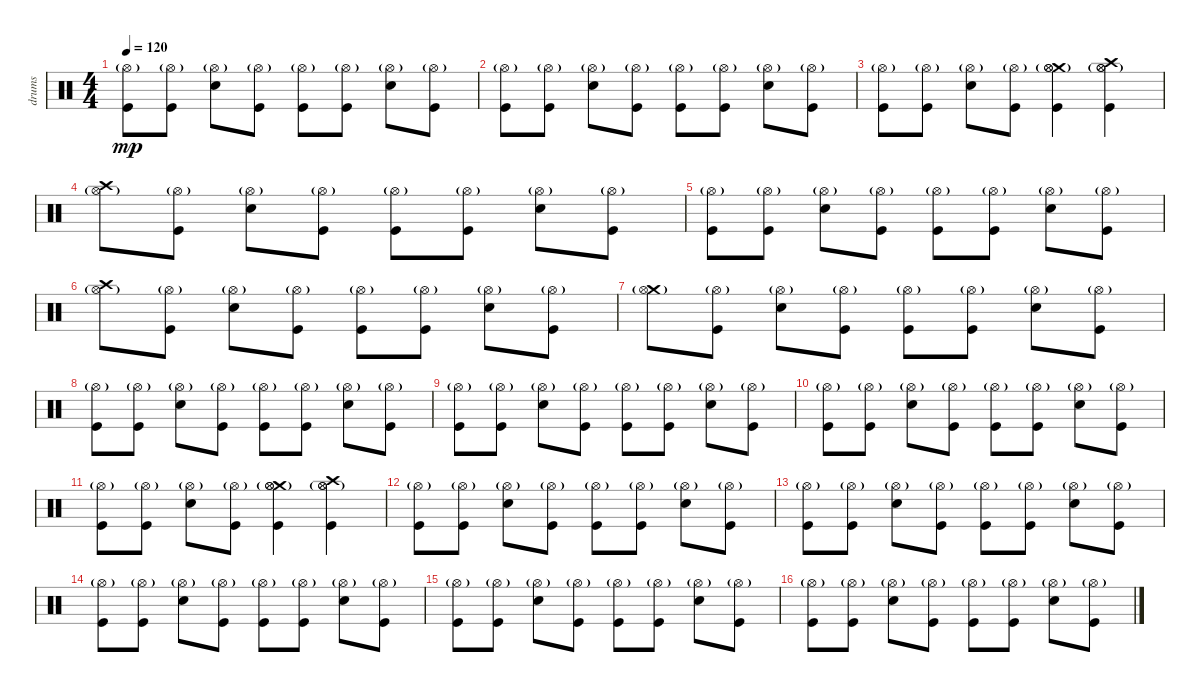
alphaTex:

\track ("drums" "drums") {instrument percussion}
\staff {score}
\articulation defaults
\ts (4 4)
\tempo 120
\clef neutral
\ks c
("Kick (hit)" "Hi-Hat (open)"{g}).8{dy mp} ("Kick (hit)" "Hi-Hat (open)"{g}).8 ("Electric Snare (hit)" "Hi-Hat (open)"{g}).8 ("Kick (hit)" "Hi-Hat (open)"{g}).8 ("Kick (hit)" "Hi-Hat (open)"{g}).8 ("Kick (hit)" "Hi-Hat (open)"{g}).8 ("Electric Snare (hit)" "Hi-Hat (open)"{g}).8 ("Kick (hit)" "Hi-Hat (open)"{g}).8 |
("Kick (hit)" "Hi-Hat (open)"{g}).8 ("Kick (hit)" "Hi-Hat (open)"{g}).8 ("Electric Snare (hit)" "Hi-Hat (open)"{g}).8 ("Kick (hit)" "Hi-Hat (open)"{g}).8 ("Kick (hit)" "Hi-Hat (open)"{g}).8 ("Kick (hit)" "Hi-Hat (open)"{g}).8 ("Electric Snare (hit)" "Hi-Hat (open)"{g}).8 ("Kick (hit)" "Hi-Hat (open)"{g}).8 |
("Kick (hit)" "Hi-Hat (open)"{g}).8 ("Kick (hit)" "Hi-Hat (open)"{g}).8 ("Electric Snare (hit)" "Hi-Hat (open)"{g}).8 ("Kick (hit)" "Hi-Hat (open)"{g}).8 ("Crash medium (hit)" "Hi-Hat (open)" "Kick (hit)" "Hi-Hat (open)"{g}).4 ("Crash high (hit)" "Hi-Hat (open)" "Kick (hit)" "Hi-Hat (open)"{g}).4 |
("Crash high (hit)" "Hi-Hat (open)"{g}).8 ("Kick (hit)" "Hi-Hat (open)"{g}).8 ("Electric Snare (hit)" "Hi-Hat (open)"{g}).8 ("Kick (hit)" "Hi-Hat (open)"{g}).8 ("Kick (hit)" "Hi-Hat (open)"{g}).8 ("Kick (hit)" "Hi-Hat (open)"{g}).8 ("Electric Snare (hit)" "Hi-Hat (open)"{g}).8 ("Kick (hit)" "Hi-Hat (open)"{g}).8 |
("Kick (hit)" "Hi-Hat (open)"{g}).8 ("Kick (hit)" "Hi-Hat (open)"{g}).8 ("Electric Snare (hit)" "Hi-Hat (open)"{g}).8 ("Kick (hit)" "Hi-Hat (open)"{g}).8 ("Kick (hit)" "Hi-Hat (open)"{g}).8 ("Kick (hit)" "Hi-Hat (open)"{g}).8 ("Electric Snare (hit)" "Hi-Hat (open)"{g}).8 ("Kick (hit)" "Hi-Hat (open)"{g}).8 |
("Crash high (hit)" "Hi-Hat (open)"{g}).8 ("Kick (hit)" "Hi-Hat (open)"{g}).8 ("Electric Snare (hit)" "Hi-Hat (open)"{g}).8 ("Kick (hit)" "Hi-Hat (open)"{g}).8 ("Kick (hit)" "Hi-Hat (open)"{g}).8 ("Kick (hit)" "Hi-Hat (open)"{g}).8 ("Electric Snare (hit)" "Hi-Hat (open)"{g}).8 ("Kick (hit)" "Hi-Hat (open)"{g}).8 |
("Crash medium (hit)" "Hi-Hat (open)"{g}).8 ("Kick (hit)" "Hi-Hat (open)"{g}).8 ("Electric Snare (hit)" "Hi-Hat (open)"{g}).8 ("Kick (hit)" "Hi-Hat (open)"{g}).8 ("Kick (hit)" "Hi-Hat (open)"{g}).8 ("Kick (hit)" "Hi-Hat (open)"{g}).8 ("Electric Snare (hit)" "Hi-Hat (open)"{g}).8 ("Kick (hit)" "Hi-Hat (open)"{g}).8 |
("Kick (hit)" "Hi-Hat (open)"{g}).8 ("Kick (hit)" "Hi-Hat (open)"{g}).8 ("Electric Snare (hit)" "Hi-Hat (open)"{g}).8 ("Kick (hit)" "Hi-Hat (open)"{g}).8 ("Kick (hit)" "Hi-Hat (open)"{g}).8 ("Kick (hit)" "Hi-Hat (open)"{g}).8 ("Electric Snare (hit)" "Hi-Hat (open)"{g}).8 ("Kick (hit)" "Hi-Hat (open)"{g}).8 |
("Kick (hit)" "Hi-Hat (open)"{g}).8 ("Kick (hit)" "Hi-Hat (open)"{g}).8 ("Electric Snare (hit)" "Hi-Hat (open)"{g}).8 ("Kick (hit)" "Hi-Hat (open)"{g}).8 ("Kick (hit)" "Hi-Hat (open)"{g}).8 ("Kick (hit)" "Hi-Hat (open)"{g}).8 ("Electric Snare (hit)" "Hi-Hat (open)"{g}).8 ("Kick (hit)" "Hi-Hat (open)"{g}).8 |
("Kick (hit)" "Hi-Hat (open)"{g}).8 ("Kick (hit)" "Hi-Hat (open)"{g}).8 ("Electric Snare (hit)" "Hi-Hat (open)"{g}).8 ("Kick (hit)" "Hi-Hat (open)"{g}).8 ("Kick (hit)" "Hi-Hat (open)"{g}).8 ("Kick (hit)" "Hi-Hat (open)"{g}).8 ("Electric Snare (hit)" "Hi-Hat (open)"{g}).8 ("Kick (hit)" "Hi-Hat (open)"{g}).8 |
("Kick (hit)" "Hi-Hat (open)"{g}).8 ("Kick (hit)" "Hi-Hat (open)"{g}).8 ("Electric Snare (hit)" "Hi-Hat (open)"{g}).8 ("Kick (hit)" "Hi-Hat (open)"{g}).8 ("Crash medium (hit)" "Hi-Hat (open)" "Kick (hit)" "Hi-Hat (open)"{g}).4 ("Crash high (hit)" "Hi-Hat (open)" "Kick (hit)" "Hi-Hat (open)"{g}).4 |
("Kick (hit)" "Hi-Hat (open)"{g}).8 ("Kick (hit)" "Hi-Hat (open)"{g}).8 ("Electric Snare (hit)" "Hi-Hat (open)"{g}).8 ("Kick (hit)" "Hi-Hat (open)"{g}).8 ("Kick (hit)" "Hi-Hat (open)"{g}).8 ("Kick (hit)" "Hi-Hat (open)"{g}).8 ("Electric Snare (hit)" "Hi-Hat (open)"{g}).8 ("Kick (hit)" "Hi-Hat (open)"{g}).8 |
("Kick (hit)" "Hi-Hat (open)"{g}).8 ("Kick (hit)" "Hi-Hat (open)"{g}).8 ("Electric Snare (hit)" "Hi-Hat (open)"{g}).8 ("Kick (hit)" "Hi-Hat (open)"{g}).8 ("Kick (hit)" "Hi-Hat (open)"{g}).8 ("Kick (hit)" "Hi-Hat (open)"{g}).8 ("Electric Snare (hit)" "Hi-Hat (open)"{g}).8 ("Kick (hit)" "Hi-Hat (open)"{g}).8 |
("Kick (hit)" "Hi-Hat (open)"{g}).8 ("Kick (hit)" "Hi-Hat (open)"{g}).8 ("Electric Snare (hit)" "Hi-Hat (open)"{g}).8 ("Kick (hit)" "Hi-Hat (open)"{g}).8 ("Kick (hit)" "Hi-Hat (open)"{g}).8 ("Kick (hit)" "Hi-Hat (open)"{g}).8 ("Electric Snare (hit)" "Hi-Hat (open)"{g}).8 ("Kick (hit)" "Hi-Hat (open)"{g}).8 |
("Kick (hit)" "Hi-Hat (open)"{g}).8 ("Kick (hit)" "Hi-Hat (open)"{g}).8 ("Electric Snare (hit)" "Hi-Hat (open)"{g}).8 ("Kick (hit)" "Hi-Hat (open)"{g}).8 ("Kick (hit)" "Hi-Hat (open)"{g}).8 ("Kick (hit)" "Hi-Hat (open)"{g}).8 ("Electric Snare (hit)" "Hi-Hat (open)"{g}).8 ("Kick (hit)" "Hi-Hat (open)"{g}).8 |
("Kick (hit)" "Hi-Hat (open)"{g}).8 ("Kick (hit)" "Hi-Hat (open)"{g}).8 ("Electric Snare (hit)" "Hi-Hat (open)"{g}).8 ("Kick (hit)" "Hi-Hat (open)"{g}).8 ("Kick (hit)" "Hi-Hat (open)"{g}).8 ("Kick (hit)" "Hi-Hat (open)"{g}).8 ("Electric Snare (hit)" "Hi-Hat (open)"{g}).8 ("Kick (hit)" "Hi-Hat (open)"{g}).8
